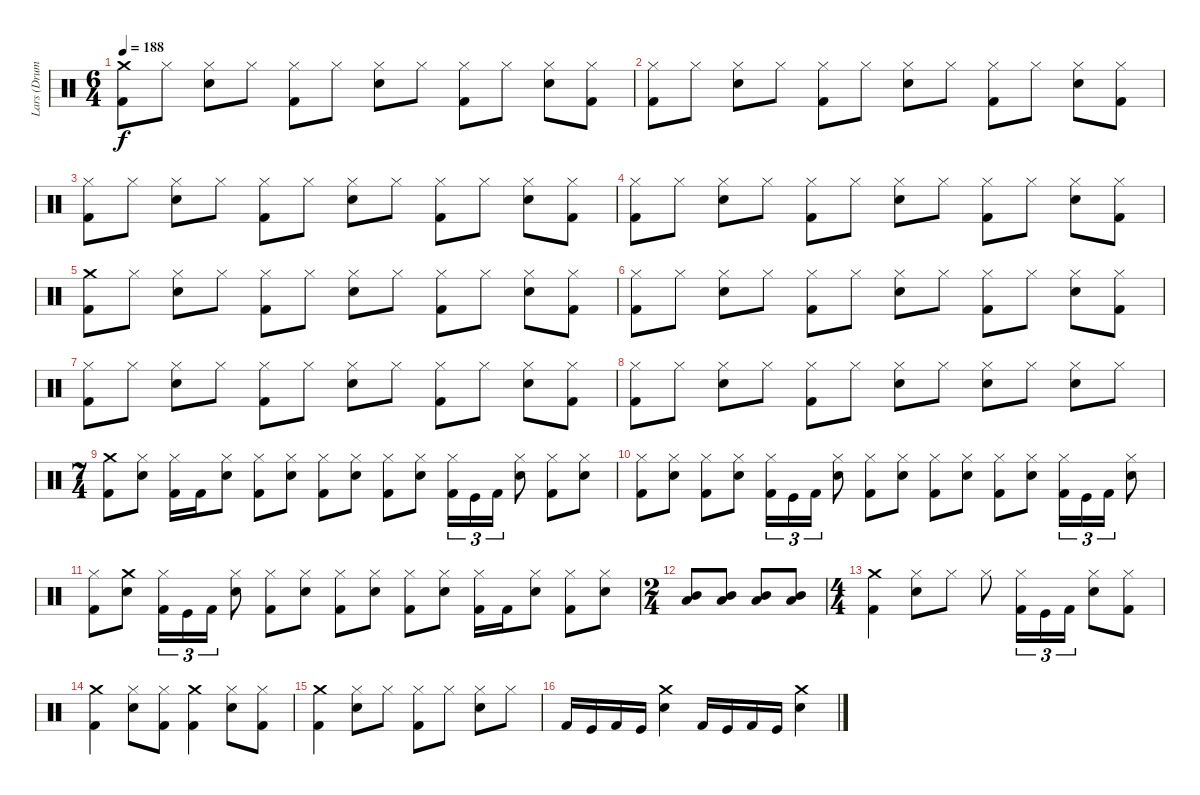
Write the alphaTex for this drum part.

\track ("Lars (Drums)" "Lars (Drum") {instrument percussion}
\staff {score}
\articulation defaults
\ts (6 4)
\tempo 188
\clef neutral
\ks c
("Kick (hit) 2" "Crash medium (hit)").8{dy f} "Hi-Hat (closed)".8 ("Snare (hit) 2" "Hi-Hat (closed)").8 "Hi-Hat (closed)".8 ("Kick (hit) 2" "Hi-Hat (closed)").8 "Hi-Hat (closed)".8 ("Snare (hit) 2" "Hi-Hat (closed)").8 "Hi-Hat (closed)".8 ("Kick (hit) 2" "Hi-Hat (closed)").8 "Hi-Hat (closed)".8 ("Snare (hit) 2" "Hi-Hat (closed)").8 ("Kick (hit) 2" "Hi-Hat (closed)").8 |
("Hi-Hat (closed)" "Kick (hit) 2").8 "Hi-Hat (closed)".8 ("Snare (hit) 2" "Hi-Hat (closed)").8 "Hi-Hat (closed)".8 ("Kick (hit) 2" "Hi-Hat (closed)").8 "Hi-Hat (closed)".8 ("Snare (hit) 2" "Hi-Hat (closed)").8 "Hi-Hat (closed)".8 ("Kick (hit) 2" "Hi-Hat (closed)").8 "Hi-Hat (closed)".8 ("Snare (hit) 2" "Hi-Hat (closed)").8 ("Kick (hit) 2" "Hi-Hat (closed)").8 |
("Hi-Hat (closed)" "Kick (hit) 2").8 "Hi-Hat (closed)".8 ("Snare (hit) 2" "Hi-Hat (closed)").8 "Hi-Hat (closed)".8 ("Kick (hit) 2" "Hi-Hat (closed)").8 "Hi-Hat (closed)".8 ("Snare (hit) 2" "Hi-Hat (closed)").8 "Hi-Hat (closed)".8 ("Kick (hit) 2" "Hi-Hat (closed)").8 "Hi-Hat (closed)".8 ("Snare (hit) 2" "Hi-Hat (closed)").8 ("Kick (hit) 2" "Hi-Hat (closed)").8 |
("Hi-Hat (closed)" "Kick (hit) 2").8 "Hi-Hat (closed)".8 ("Snare (hit) 2" "Hi-Hat (closed)").8 "Hi-Hat (closed)".8 ("Kick (hit) 2" "Hi-Hat (closed)").8 "Hi-Hat (closed)".8 ("Snare (hit) 2" "Hi-Hat (closed)").8 "Hi-Hat (closed)".8 ("Kick (hit) 2" "Hi-Hat (closed)").8 "Hi-Hat (closed)".8 ("Snare (hit) 2" "Hi-Hat (closed)").8 ("Kick (hit) 2" "Hi-Hat (closed)").8 |
("Kick (hit) 2" "Crash medium (hit)").8 "Hi-Hat (closed)".8 ("Snare (hit) 2" "Hi-Hat (closed)").8 "Hi-Hat (closed)".8 ("Kick (hit) 2" "Hi-Hat (closed)").8 "Hi-Hat (closed)".8 ("Snare (hit) 2" "Hi-Hat (closed)").8 "Hi-Hat (closed)".8 ("Kick (hit) 2" "Hi-Hat (closed)").8 "Hi-Hat (closed)".8 ("Snare (hit) 2" "Hi-Hat (closed)").8 ("Kick (hit) 2" "Hi-Hat (closed)").8 |
("Hi-Hat (closed)" "Kick (hit) 2").8 "Hi-Hat (closed)".8 ("Snare (hit) 2" "Hi-Hat (closed)").8 "Hi-Hat (closed)".8 ("Kick (hit) 2" "Hi-Hat (closed)").8 "Hi-Hat (closed)".8 ("Snare (hit) 2" "Hi-Hat (closed)").8 "Hi-Hat (closed)".8 ("Kick (hit) 2" "Hi-Hat (closed)").8 "Hi-Hat (closed)".8 ("Snare (hit) 2" "Hi-Hat (closed)").8 ("Kick (hit) 2" "Hi-Hat (closed)").8 |
("Hi-Hat (closed)" "Kick (hit) 2").8 "Hi-Hat (closed)".8 ("Snare (hit) 2" "Hi-Hat (closed)").8 "Hi-Hat (closed)".8 ("Kick (hit) 2" "Hi-Hat (closed)").8 "Hi-Hat (closed)".8 ("Snare (hit) 2" "Hi-Hat (closed)").8 "Hi-Hat (closed)".8 ("Kick (hit) 2" "Hi-Hat (closed)").8 "Hi-Hat (closed)".8 ("Snare (hit) 2" "Hi-Hat (closed)").8 ("Kick (hit) 2" "Hi-Hat (closed)").8 |
("Hi-Hat (closed)" "Kick (hit) 2").8 "Hi-Hat (closed)".8 ("Snare (hit) 2" "Hi-Hat (closed)").8 "Hi-Hat (closed)".8 ("Kick (hit) 2" "Hi-Hat (closed)").8 "Hi-Hat (closed)".8 ("Snare (hit) 2" "Hi-Hat (closed)").8 "Hi-Hat (closed)".8 ("Snare (hit) 2" "Hi-Hat (closed)").8 "Hi-Hat (closed)".8 ("Snare (hit) 2" "Hi-Hat (closed)").8 "Hi-Hat (closed)".8 |
\ts (7 4)
("Crash medium (hit)" "Kick (hit) 2").8 ("Snare (hit) 2" "Hi-Hat (closed)").8 ("Hi-Hat (closed)" "Kick (hit) 2").16 "Kick (hit) 2".16 ("Snare (hit) 2" "Hi-Hat (closed)").8 ("Hi-Hat (closed)" "Kick (hit) 2").8 ("Snare (hit) 2" "Hi-Hat (closed)").8 ("Hi-Hat (closed)" "Kick (hit) 2").8 ("Snare (hit) 2" "Hi-Hat (closed)").8 ("Hi-Hat (closed)" "Kick (hit) 2").8 ("Snare (hit) 2" "Hi-Hat (closed)").8 ("Hi-Hat (closed)" "Kick (hit) 2").16{tu (3 2)} "Kick (hit)".16{tu (3 2)} "Kick (hit) 2".16{tu (3 2)} ("Snare (hit) 2" "Hi-Hat (closed)").8 ("Hi-Hat (closed)" "Kick (hit) 2").8 ("Snare (hit) 2" "Hi-Hat (closed)").8 |
("Hi-Hat (closed)" "Kick (hit) 2").8 ("Snare (hit) 2" "Hi-Hat (closed)").8 ("Hi-Hat (closed)" "Kick (hit) 2").8 ("Snare (hit) 2" "Hi-Hat (closed)").8 ("Hi-Hat (closed)" "Kick (hit) 2").16{tu (3 2)} "Kick (hit)".16{tu (3 2)} "Kick (hit) 2".16{tu (3 2)} ("Snare (hit) 2" "Hi-Hat (closed)").8 ("Hi-Hat (closed)" "Kick (hit) 2").8 ("Snare (hit) 2" "Hi-Hat (closed)").8 ("Hi-Hat (closed)" "Kick (hit) 2").8 ("Snare (hit) 2" "Hi-Hat (closed)").8 ("Kick (hit) 2" "Hi-Hat (closed)").8 ("Snare (hit) 2" "Hi-Hat (closed)").8 ("Kick (hit) 2" "Hi-Hat (closed)").16{tu (3 2)} "Kick (hit)".16{tu (3 2)} "Kick (hit) 2".16{tu (3 2)} ("Snare (hit) 2" "Hi-Hat (closed)").8 |
("Kick (hit) 2" "Hi-Hat (closed)").8 ("Crash medium (hit)" "Snare (hit) 2").8 ("Kick (hit) 2" "Hi-Hat (closed)").16{tu (3 2)} "Kick (hit)".16{tu (3 2)} "Kick (hit) 2".16{tu (3 2)} ("Snare (hit) 2" "Hi-Hat (closed)").8 ("Hi-Hat (closed)" "Kick (hit) 2").8 ("Hi-Hat (closed)" "Snare (hit) 2").8 ("Hi-Hat (closed)" "Kick (hit) 2").8 ("Snare (hit) 2" "Hi-Hat (closed)").8 ("Hi-Hat (closed)" "Kick (hit) 2").8 ("Snare (hit) 2" "Hi-Hat (closed)").8 ("Hi-Hat (closed)" "Kick (hit) 2").16 "Kick (hit) 2".16 ("Snare (hit) 2" "Hi-Hat (closed)").8 ("Hi-Hat (closed)" "Kick (hit) 2").8 ("Snare (hit) 2" "Hi-Hat (closed)").8 |
\ts (2 4)
("Mid Tom (hit)" "Low Tom (hit)").8 ("Mid Tom (hit)" "Low Tom (hit)").8 ("Mid Tom (hit)" "Low Tom (hit)").8 ("Mid Tom (hit)" "Low Tom (hit)").8 |
\ts (4 4)
("Kick (hit) 2" "Crash medium (hit)").4 ("Snare (hit) 2" "Hi-Hat (closed)").8 "Hi-Hat (closed)".8 "Hi-Hat (closed)".8 ("Kick (hit) 2" "Hi-Hat (closed)").16{tu (3 2)} "Kick (hit)".16{tu (3 2)} "Kick (hit) 2".16{tu (3 2)} ("Snare (hit) 2" "Hi-Hat (closed)").8 ("Kick (hit) 2" "Hi-Hat (closed)").8 |
("Kick (hit) 2" "Crash medium (hit)").4 ("Hi-Hat (closed)" "Snare (hit) 2").8 ("Kick (hit) 2" "Hi-Hat (closed)").8 ("Crash medium (hit)" "Kick (hit) 2").4 ("Hi-Hat (closed)" "Snare (hit) 2").8 ("Kick (hit) 2" "Hi-Hat (closed)").8 |
("Kick (hit) 2" "Crash medium (hit)").4 ("Hi-Hat (closed)" "Snare (hit) 2").8 "Hi-Hat (closed)".8 ("Hi-Hat (closed)" "Kick (hit) 2").8 "Hi-Hat (closed)".8 ("Snare (hit) 2" "Hi-Hat (closed)").8 "Hi-Hat (closed)".8 |
"Kick (hit) 2".16 "Kick (hit)".16 "Kick (hit) 2".16 "Kick (hit)".16 ("Crash medium (hit)" "Snare (hit) 2").4 "Kick (hit) 2".16 "Kick (hit)".16 "Kick (hit) 2".16 "Kick (hit)".16 ("Snare (hit) 2" "Crash medium (hit)").4
